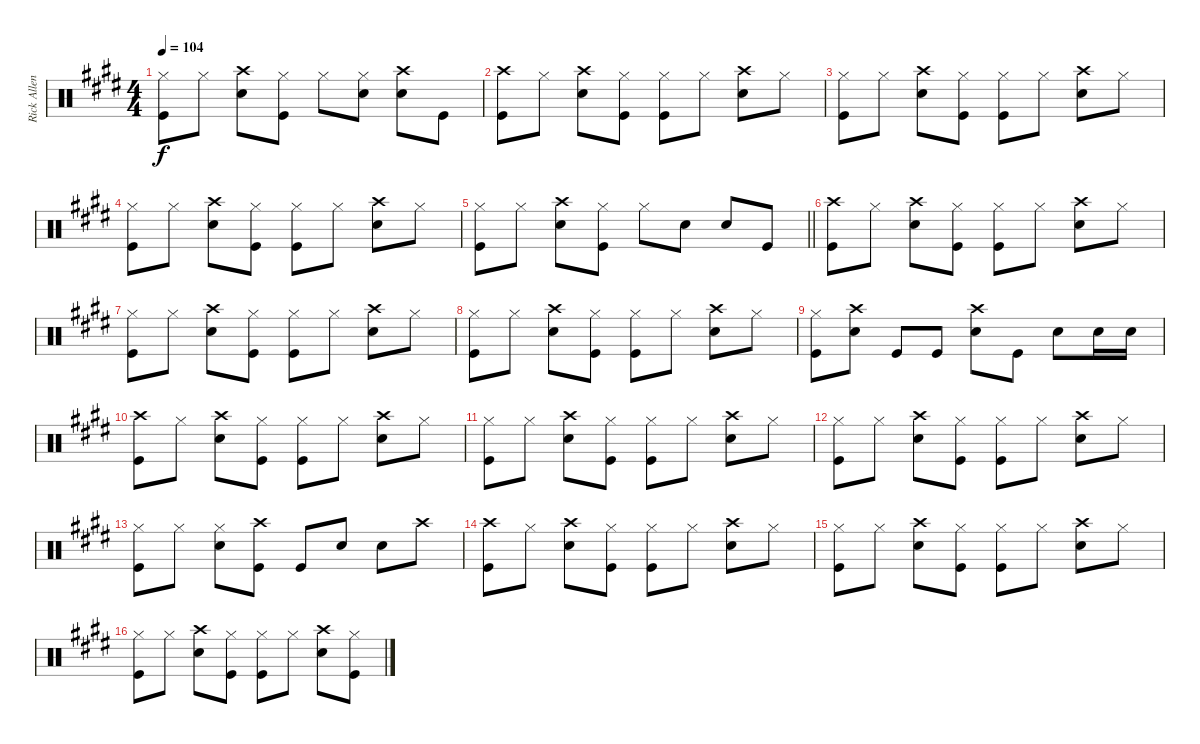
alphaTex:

\track ("Rick Allen" "Rick Allen") {instrument percussion}
\staff {score}
\articulation defaults
\ts (4 4)
\tempo 104
\clef neutral
\ks e
("Hi-Hat (closed)" "Kick (hit)").8{dy f} "Hi-Hat (closed)".8 ("Crash high (hit)" "Snare (hit) 2").8 ("Hi-Hat (closed)" "Kick (hit)").8 "Hi-Hat (closed)".8 ("Hi-Hat (closed)" "Snare (hit) 2").8 ("Crash high (hit)" "Snare (hit) 2").8 "Kick (hit)".8 |
("Crash high (hit)" "Kick (hit)").8 "Hi-Hat (closed)".8 ("Crash high (hit)" "Snare (hit) 2").8 ("Hi-Hat (closed)" "Kick (hit)").8 ("Hi-Hat (closed)" "Kick (hit)").8 "Hi-Hat (closed)".8 ("Crash high (hit)" "Snare (hit) 2").8 "Hi-Hat (closed)".8 |
("Hi-Hat (closed)" "Kick (hit)").8 "Hi-Hat (closed)".8 ("Crash high (hit)" "Snare (hit) 2").8 ("Hi-Hat (closed)" "Kick (hit)").8 ("Hi-Hat (closed)" "Kick (hit)").8 "Hi-Hat (closed)".8 ("Crash high (hit)" "Snare (hit) 2").8 "Hi-Hat (closed)".8 |
("Hi-Hat (closed)" "Kick (hit)").8 "Hi-Hat (closed)".8 ("Crash high (hit)" "Snare (hit) 2").8 ("Hi-Hat (closed)" "Kick (hit)").8 ("Hi-Hat (closed)" "Kick (hit)").8 "Hi-Hat (closed)".8 ("Crash high (hit)" "Snare (hit) 2").8 "Hi-Hat (closed)".8 |
\barLineRight lightlight
("Hi-Hat (closed)" "Kick (hit)").8 "Hi-Hat (closed)".8 ("Crash high (hit)" "Snare (hit) 2").8 ("Hi-Hat (closed)" "Kick (hit)").8 "Hi-Hat (closed)".8 "Snare (hit) 2".8 "Snare (hit) 2".8 "Kick (hit)".8 |
("Crash high (hit)" "Kick (hit)").8 "Hi-Hat (closed)".8 ("Crash high (hit)" "Snare (hit) 2").8 ("Hi-Hat (closed)" "Kick (hit)").8 ("Hi-Hat (closed)" "Kick (hit)").8 "Hi-Hat (closed)".8 ("Crash high (hit)" "Snare (hit) 2").8 "Hi-Hat (closed)".8 |
("Hi-Hat (closed)" "Kick (hit)").8 "Hi-Hat (closed)".8 ("Crash high (hit)" "Snare (hit) 2").8 ("Hi-Hat (closed)" "Kick (hit)").8 ("Hi-Hat (closed)" "Kick (hit)").8 "Hi-Hat (closed)".8 ("Crash high (hit)" "Snare (hit) 2").8 "Hi-Hat (closed)".8 |
("Hi-Hat (closed)" "Kick (hit)").8 "Hi-Hat (closed)".8 ("Crash high (hit)" "Snare (hit) 2").8 ("Hi-Hat (closed)" "Kick (hit)").8 ("Hi-Hat (closed)" "Kick (hit)").8 "Hi-Hat (closed)".8 ("Crash high (hit)" "Snare (hit) 2").8 "Hi-Hat (closed)".8 |
("Hi-Hat (closed)" "Kick (hit)").8 ("Crash high (hit)" "Snare (hit) 2").8 "Kick (hit)".8 "Kick (hit)".8 ("Crash high (hit)" "Snare (hit) 2").8 "Kick (hit)".8 "Snare (hit) 2".8 "Snare (hit) 2".16 "Snare (hit) 2".16 |
("Crash high (hit)" "Kick (hit)").8 "Hi-Hat (closed)".8 ("Crash high (hit)" "Snare (hit) 2").8 ("Hi-Hat (closed)" "Kick (hit)").8 ("Hi-Hat (closed)" "Kick (hit)").8 "Hi-Hat (closed)".8 ("Crash high (hit)" "Snare (hit) 2").8 "Hi-Hat (closed)".8 |
("Hi-Hat (closed)" "Kick (hit)").8 "Hi-Hat (closed)".8 ("Crash high (hit)" "Snare (hit) 2").8 ("Hi-Hat (closed)" "Kick (hit)").8 ("Hi-Hat (closed)" "Kick (hit)").8 "Hi-Hat (closed)".8 ("Crash high (hit)" "Snare (hit) 2").8 "Hi-Hat (closed)".8 |
("Hi-Hat (closed)" "Kick (hit)").8 "Hi-Hat (closed)".8 ("Crash high (hit)" "Snare (hit) 2").8 ("Hi-Hat (closed)" "Kick (hit)").8 ("Hi-Hat (closed)" "Kick (hit)").8 "Hi-Hat (closed)".8 ("Crash high (hit)" "Snare (hit) 2").8 "Hi-Hat (closed)".8 |
("Hi-Hat (closed)" "Kick (hit)").8 "Hi-Hat (closed)".8 ("Hi-Hat (closed)" "Snare (hit) 2").8 ("Crash high (hit)" "Kick (hit)").8 "Kick (hit)".8 "Snare (hit) 2".8 "Snare (hit) 2".8 "Crash high (hit)".8 |
("Crash high (hit)" "Kick (hit)").8 "Hi-Hat (closed)".8 ("Crash high (hit)" "Snare (hit) 2").8 ("Hi-Hat (closed)" "Kick (hit)").8 ("Hi-Hat (closed)" "Kick (hit)").8 "Hi-Hat (closed)".8 ("Crash high (hit)" "Snare (hit) 2").8 "Hi-Hat (closed)".8 |
("Hi-Hat (closed)" "Kick (hit)").8 "Hi-Hat (closed)".8 ("Crash high (hit)" "Snare (hit) 2").8 ("Hi-Hat (closed)" "Kick (hit)").8 ("Hi-Hat (closed)" "Kick (hit)").8 "Hi-Hat (closed)".8 ("Crash high (hit)" "Snare (hit) 2").8 "Hi-Hat (closed)".8 |
("Hi-Hat (closed)" "Kick (hit)").8 "Hi-Hat (closed)".8 ("Crash high (hit)" "Snare (hit) 2").8 ("Hi-Hat (closed)" "Kick (hit)").8 ("Hi-Hat (closed)" "Kick (hit)").8 "Hi-Hat (closed)".8 ("Crash high (hit)" "Snare (hit) 2").8 ("Hi-Hat (closed)" "Kick (hit)").8
